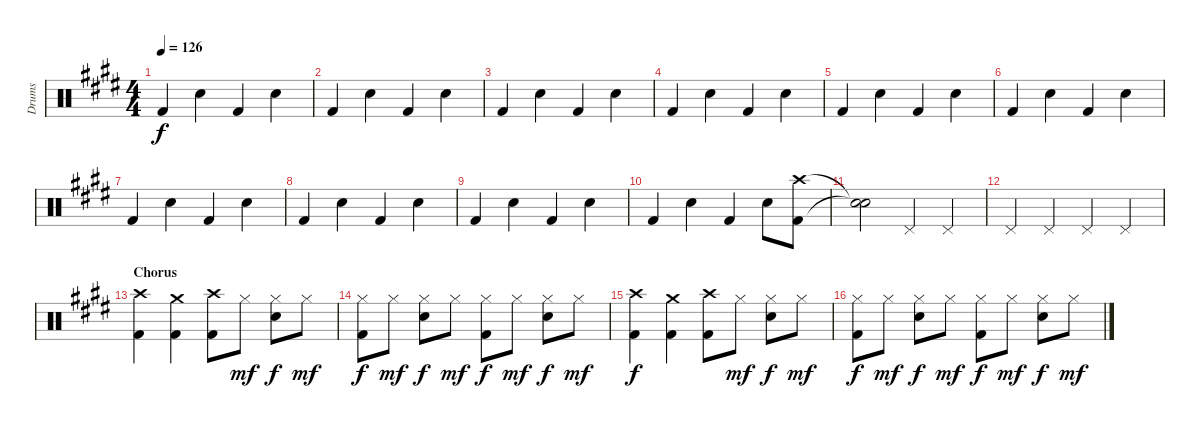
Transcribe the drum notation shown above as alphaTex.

\track ("Drums" "Drums") {instrument percussion}
\staff {score}
\articulation defaults
\ts (4 4)
\tempo 126
\clef neutral
\ks e "Kick (hit) 2".4{dy f} "Snare (hit) 2".4 "Kick (hit) 2".4 "Snare (hit) 2".4
|
"Kick (hit) 2".4 "Snare (hit) 2".4 "Kick (hit) 2".4 "Snare (hit) 2".4 |
"Kick (hit) 2".4 "Snare (hit) 2".4 "Kick (hit) 2".4 "Snare (hit) 2".4 |
"Kick (hit) 2".4 "Snare (hit) 2".4 "Kick (hit) 2".4 "Snare (hit) 2".4 |
"Kick (hit) 2".4 "Snare (hit) 2".4 "Kick (hit) 2".4 "Snare (hit) 2".4 |
"Kick (hit) 2".4 "Snare (hit) 2".4 "Kick (hit) 2".4 "Snare (hit) 2".4 |
"Kick (hit) 2".4 "Snare (hit) 2".4 "Kick (hit) 2".4 "Snare (hit) 2".4 |
"Kick (hit) 2".4 "Snare (hit) 2".4 "Kick (hit) 2".4 "Snare (hit) 2".4 |
"Kick (hit) 2".4 "Snare (hit) 2".4 "Kick (hit) 2".4 "Snare (hit) 2".4 |
"Kick (hit) 2".4 "Snare (hit) 2".4 "Kick (hit) 2".4 "Snare (hit) 2".8 ("Crash high (hit)" "Kick (hit) 2").8 |
("Snare (hit)"{t} "Snare (hit)"{t}).2 "Pedal Hi-Hat (hit)".4 "Pedal Hi-Hat (hit)".4 |
"Pedal Hi-Hat (hit)".4 "Pedal Hi-Hat (hit)".4 "Pedal Hi-Hat (hit)".4 "Pedal Hi-Hat (hit)".4 |
\section ("" "Chorus")
("Crash high (hit)" "Kick (hit) 2").4 ("Crash medium (hit)" "Kick (hit) 2").4 ("Crash high (hit)" "Kick (hit) 2").8 "Hi-Hat (closed)".8{dy mf} ("Hi-Hat (closed)" "Snare (hit) 2").8{dy f} "Hi-Hat (closed)".8{dy mf} |
("Hi-Hat (closed)" "Kick (hit) 2").8{dy f} "Hi-Hat (closed)".8{dy mf} ("Hi-Hat (closed)" "Snare (hit) 2").8{dy f} "Hi-Hat (closed)".8{dy mf} ("Hi-Hat (closed)" "Kick (hit) 2").8{dy f} "Hi-Hat (closed)".8{dy mf} ("Hi-Hat (closed)" "Snare (hit) 2").8{dy f} "Hi-Hat (closed)".8{dy mf} |
("Crash high (hit)" "Kick (hit) 2").4{dy f} ("Crash medium (hit)" "Kick (hit) 2").4 ("Crash high (hit)" "Kick (hit) 2").8 "Hi-Hat (closed)".8{dy mf} ("Hi-Hat (closed)" "Snare (hit) 2").8{dy f} "Hi-Hat (closed)".8{dy mf} |
("Hi-Hat (closed)" "Kick (hit) 2").8{dy f} "Hi-Hat (closed)".8{dy mf} ("Hi-Hat (closed)" "Snare (hit) 2").8{dy f} "Hi-Hat (closed)".8{dy mf} ("Hi-Hat (closed)" "Kick (hit) 2").8{dy f} "Hi-Hat (closed)".8{dy mf} ("Hi-Hat (closed)" "Snare (hit) 2").8{dy f} "Hi-Hat (closed)".8{dy mf}
